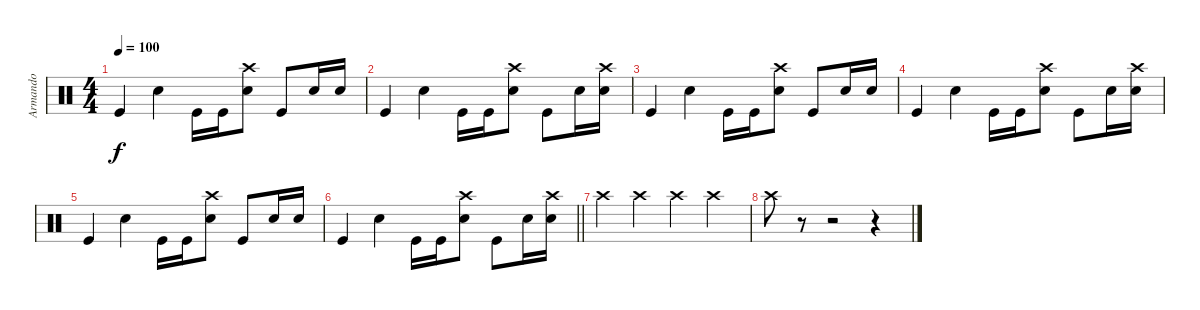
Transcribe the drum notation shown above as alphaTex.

\track ("Armando" "Armando") {instrument percussion}
\staff {score}
\articulation defaults
\ts (4 4)
\tempo 100
\clef neutral
\ks c "Kick (hit)".4{dy f} "Snare (hit) 2".4 "Kick (hit)".16 "Kick (hit)".16
("Crash high (hit)" "Snare (hit) 2").8 "Kick (hit)".8 "Snare (hit) 2".16 "Snare (hit) 2".16 |
"Kick (hit)".4 "Snare (hit) 2".4 "Kick (hit)".16 "Kick (hit)".16 ("Crash high (hit)" "Snare (hit) 2").8 "Kick (hit)".8 "Snare (hit) 2".16 ("Crash high (hit)" "Snare (hit) 2").16 |
"Kick (hit)".4 "Snare (hit) 2".4 "Kick (hit)".16 "Kick (hit)".16 ("Crash high (hit)" "Snare (hit) 2").8 "Kick (hit)".8 "Snare (hit) 2".16 "Snare (hit) 2".16 |
"Kick (hit)".4 "Snare (hit) 2".4 "Kick (hit)".16 "Kick (hit)".16 ("Crash high (hit)" "Snare (hit) 2").8 "Kick (hit)".8 "Snare (hit) 2".16 ("Crash high (hit)" "Snare (hit) 2").16 |
"Kick (hit)".4 "Snare (hit) 2".4 "Kick (hit)".16 "Kick (hit)".16 ("Crash high (hit)" "Snare (hit) 2").8 "Kick (hit)".8 "Snare (hit) 2".16 "Snare (hit) 2".16 |
\barLineRight lightlight "Kick (hit)".4 "Snare (hit) 2".4 "Kick (hit)".16 "Kick (hit)".16
("Crash high (hit)" "Snare (hit) 2").8 "Kick (hit)".8 "Snare (hit) 2".16 ("Crash high (hit)" "Snare (hit) 2").16 |
"Crash high (hit)".4 "Crash high (hit)".4 "Crash high (hit)".4 "Crash high (hit)".4 |
"Crash high (hit)".8 r.8 r.2 r.4
